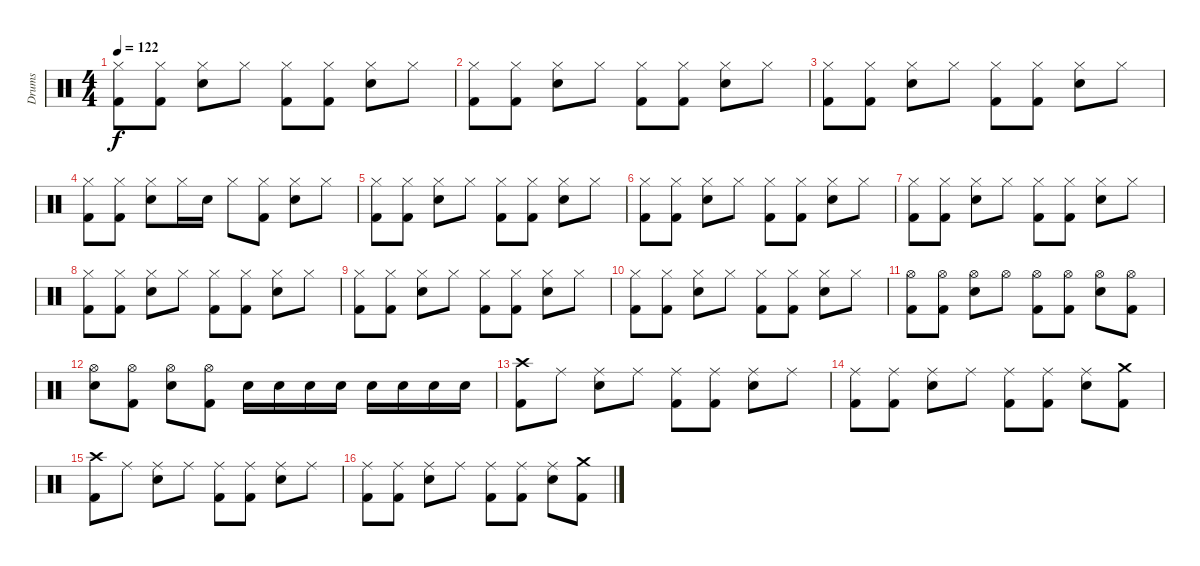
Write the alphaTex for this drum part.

\track ("Drums" "Drums") {instrument percussion}
\staff {score}
\articulation defaults
\ts (4 4)
\tempo 122
\clef neutral
\ks c
("Hi-Hat (closed)" "Kick (hit) 2").8{dy f} ("Hi-Hat (closed)" "Kick (hit) 2").8 ("Hi-Hat (closed)" "Snare (hit) 2").8 "Hi-Hat (closed)".8 ("Hi-Hat (closed)" "Kick (hit) 2").8 ("Hi-Hat (closed)" "Kick (hit) 2").8 ("Hi-Hat (closed)" "Snare (hit) 2").8 "Hi-Hat (closed)".8 |
("Hi-Hat (closed)" "Kick (hit) 2").8 ("Hi-Hat (closed)" "Kick (hit) 2").8 ("Hi-Hat (closed)" "Snare (hit) 2").8 "Hi-Hat (closed)".8 ("Hi-Hat (closed)" "Kick (hit) 2").8 ("Hi-Hat (closed)" "Kick (hit) 2").8 ("Hi-Hat (closed)" "Snare (hit) 2").8 "Hi-Hat (closed)".8 |
("Hi-Hat (closed)" "Kick (hit) 2").8 ("Hi-Hat (closed)" "Kick (hit) 2").8 ("Hi-Hat (closed)" "Snare (hit) 2").8 "Hi-Hat (closed)".8 ("Hi-Hat (closed)" "Kick (hit) 2").8 ("Hi-Hat (closed)" "Kick (hit) 2").8 ("Hi-Hat (closed)" "Snare (hit) 2").8 "Hi-Hat (closed)".8 |
("Hi-Hat (closed)" "Kick (hit) 2").8 ("Hi-Hat (closed)" "Kick (hit) 2").8 ("Hi-Hat (closed)" "Snare (hit) 2").8 "Hi-Hat (closed)".16 "Snare (hit) 2".16 "Hi-Hat (closed)".8 ("Hi-Hat (closed)" "Kick (hit) 2").8 ("Hi-Hat (closed)" "Snare (hit) 2").8 "Hi-Hat (closed)".8 |
("Hi-Hat (closed)" "Kick (hit) 2").8 ("Hi-Hat (closed)" "Kick (hit) 2").8 ("Hi-Hat (closed)" "Snare (hit) 2").8 "Hi-Hat (closed)".8 ("Hi-Hat (closed)" "Kick (hit) 2").8 ("Hi-Hat (closed)" "Kick (hit) 2").8 ("Hi-Hat (closed)" "Snare (hit) 2").8 "Hi-Hat (closed)".8 |
("Hi-Hat (closed)" "Kick (hit) 2").8 ("Hi-Hat (closed)" "Kick (hit) 2").8 ("Hi-Hat (closed)" "Snare (hit) 2").8 "Hi-Hat (closed)".8 ("Hi-Hat (closed)" "Kick (hit) 2").8 ("Hi-Hat (closed)" "Kick (hit) 2").8 ("Hi-Hat (closed)" "Snare (hit) 2").8 "Hi-Hat (closed)".8 |
("Hi-Hat (closed)" "Kick (hit) 2").8 ("Hi-Hat (closed)" "Kick (hit) 2").8 ("Hi-Hat (closed)" "Snare (hit) 2").8 "Hi-Hat (closed)".8 ("Hi-Hat (closed)" "Kick (hit) 2").8 ("Hi-Hat (closed)" "Kick (hit) 2").8 ("Hi-Hat (closed)" "Snare (hit) 2").8 "Hi-Hat (closed)".8 |
("Hi-Hat (closed)" "Kick (hit) 2").8 ("Hi-Hat (closed)" "Kick (hit) 2").8 ("Hi-Hat (closed)" "Snare (hit) 2").8 "Hi-Hat (closed)".8 ("Hi-Hat (closed)" "Kick (hit) 2").8 ("Hi-Hat (closed)" "Kick (hit) 2").8 ("Hi-Hat (closed)" "Snare (hit) 2").8 "Hi-Hat (closed)".8 |
("Hi-Hat (closed)" "Kick (hit) 2").8 ("Hi-Hat (closed)" "Kick (hit) 2").8 ("Hi-Hat (closed)" "Snare (hit) 2").8 "Hi-Hat (closed)".8 ("Hi-Hat (closed)" "Kick (hit) 2").8 ("Hi-Hat (closed)" "Kick (hit) 2").8 ("Hi-Hat (closed)" "Snare (hit) 2").8 "Hi-Hat (closed)".8 |
("Hi-Hat (closed)" "Kick (hit) 2").8 ("Hi-Hat (closed)" "Kick (hit) 2").8 ("Hi-Hat (closed)" "Snare (hit) 2").8 "Hi-Hat (closed)".8 ("Hi-Hat (closed)" "Kick (hit) 2").8 ("Hi-Hat (closed)" "Kick (hit) 2").8 ("Hi-Hat (closed)" "Snare (hit) 2").8 "Hi-Hat (closed)".8 |
("Hi-Hat (open)" "Kick (hit) 2").8 ("Hi-Hat (open)" "Kick (hit) 2").8 ("Hi-Hat (open)" "Snare (hit) 2").8 "Hi-Hat (open)".8 ("Hi-Hat (open)" "Kick (hit) 2").8 ("Hi-Hat (open)" "Kick (hit) 2").8 ("Hi-Hat (open)" "Snare (hit) 2").8 ("Hi-Hat (open)" "Kick (hit) 2").8 |
("Hi-Hat (open)" "Snare (hit) 2").8 ("Hi-Hat (open)" "Kick (hit) 2").8 ("Hi-Hat (open)" "Snare (hit) 2").8 ("Hi-Hat (open)" "Kick (hit) 2").8 "Snare (hit) 2".16 "Snare (hit) 2".16 "Snare (hit) 2".16 "Snare (hit) 2".16 "Snare (hit) 2".16 "Snare (hit) 2".16 "Snare (hit) 2".16 "Snare (hit) 2".16 |
("Crash high (hit)" "Kick (hit) 2").8 "Ride (middle)".8 ("Ride (middle)" "Snare (hit) 2").8 "Ride (middle)".8 ("Ride (middle)" "Kick (hit) 2").8 ("Ride (middle)" "Kick (hit) 2").8 ("Ride (middle)" "Snare (hit) 2").8 "Ride (middle)".8 |
("Ride (middle)" "Kick (hit) 2").8 ("Ride (middle)" "Kick (hit) 2").8 ("Ride (middle)" "Snare (hit) 2").8 "Ride (middle)".8 ("Ride (middle)" "Kick (hit) 2").8 ("Ride (middle)" "Kick (hit) 2").8 ("Ride (middle)" "Snare (hit) 2").8 ("Crash medium (hit)" "Kick (hit) 2").8 |
("Crash high (hit)" "Kick (hit) 2").8 "Ride (middle)".8 ("Ride (middle)" "Snare (hit) 2").8 "Ride (middle)".8 ("Ride (middle)" "Kick (hit) 2").8 ("Ride (middle)" "Kick (hit) 2").8 ("Ride (middle)" "Snare (hit) 2").8 "Ride (middle)".8 |
("Ride (middle)" "Kick (hit) 2").8 ("Ride (middle)" "Kick (hit) 2").8 ("Ride (middle)" "Snare (hit) 2").8 "Ride (middle)".8 ("Ride (middle)" "Kick (hit) 2").8 ("Ride (middle)" "Kick (hit) 2").8 ("Ride (middle)" "Snare (hit) 2").8 ("Crash medium (hit)" "Kick (hit) 2").8
